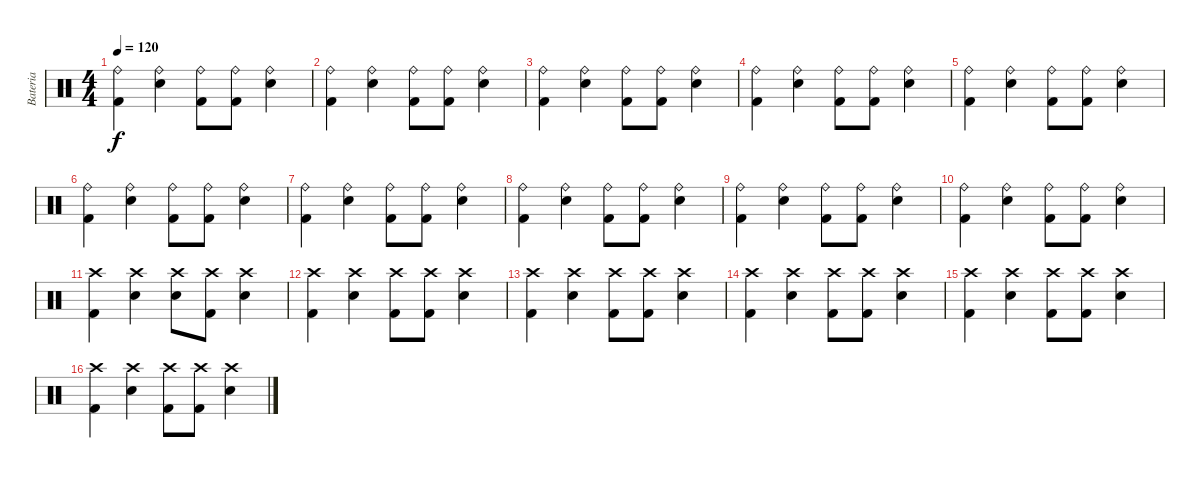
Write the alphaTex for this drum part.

\track ("Bateria" "Bateria") {instrument percussion}
\staff {score}
\articulation defaults
\ts (4 4)
\tempo 120
\clef neutral
\ks c
("Kick (hit) 2" "Ride (bell)").4{dy f} ("Electric Snare (hit)" "Ride (bell)").4 ("Kick (hit) 2" "Ride (bell)").8 ("Kick (hit) 2" "Ride (bell)").8 ("Electric Snare (hit)" "Ride (bell)").4 |
("Kick (hit) 2" "Ride (bell)").4 ("Electric Snare (hit)" "Ride (bell)").4 ("Kick (hit) 2" "Ride (bell)").8 ("Kick (hit) 2" "Ride (bell)").8 ("Electric Snare (hit)" "Ride (bell)").4 |
("Kick (hit) 2" "Ride (bell)").4 ("Electric Snare (hit)" "Ride (bell)").4 ("Kick (hit) 2" "Ride (bell)").8 ("Kick (hit) 2" "Ride (bell)").8 ("Electric Snare (hit)" "Ride (bell)").4 |
("Kick (hit) 2" "Ride (bell)").4 ("Electric Snare (hit)" "Ride (bell)").4 ("Kick (hit) 2" "Ride (bell)").8 ("Kick (hit) 2" "Ride (bell)").8 ("Electric Snare (hit)" "Ride (bell)").4 |
("Kick (hit) 2" "Ride (bell)").4 ("Electric Snare (hit)" "Ride (bell)").4 ("Kick (hit) 2" "Ride (bell)").8 ("Kick (hit) 2" "Ride (bell)").8 ("Electric Snare (hit)" "Ride (bell)").4 |
("Kick (hit) 2" "Ride (bell)").4 ("Electric Snare (hit)" "Ride (bell)").4 ("Kick (hit) 2" "Ride (bell)").8 ("Kick (hit) 2" "Ride (bell)").8 ("Electric Snare (hit)" "Ride (bell)").4 |
("Kick (hit) 2" "Ride (bell)").4 ("Electric Snare (hit)" "Ride (bell)").4 ("Kick (hit) 2" "Ride (bell)").8 ("Kick (hit) 2" "Ride (bell)").8 ("Electric Snare (hit)" "Ride (bell)").4 |
("Kick (hit) 2" "Ride (bell)").4 ("Electric Snare (hit)" "Ride (bell)").4 ("Kick (hit) 2" "Ride (bell)").8 ("Kick (hit) 2" "Ride (bell)").8 ("Electric Snare (hit)" "Ride (bell)").4 |
("Kick (hit) 2" "Ride (bell)").4 ("Electric Snare (hit)" "Ride (bell)").4 ("Kick (hit) 2" "Ride (bell)").8 ("Kick (hit) 2" "Ride (bell)").8 ("Electric Snare (hit)" "Ride (bell)").4 |
("Kick (hit) 2" "Ride (bell)").4 ("Electric Snare (hit)" "Ride (bell)").4 ("Kick (hit) 2" "Ride (bell)").8 ("Kick (hit) 2" "Ride (bell)").8 ("Electric Snare (hit)" "Ride (bell)").4 |
("Kick (hit) 2" "Crash high (hit)").4 ("Electric Snare (hit)" "Crash high (hit)").4 ("Electric Snare (hit)" "Crash high (hit)").8 ("Kick (hit) 2" "Crash high (hit)").8 ("Electric Snare (hit)" "Crash high (hit)").4 |
("Kick (hit) 2" "Crash high (hit)").4 ("Electric Snare (hit)" "Crash high (hit)").4 ("Kick (hit) 2" "Crash high (hit)").8 ("Kick (hit) 2" "Crash high (hit)").8 ("Electric Snare (hit)" "Crash high (hit)").4 |
("Kick (hit) 2" "Crash high (hit)").4 ("Electric Snare (hit)" "Crash high (hit)").4 ("Kick (hit) 2" "Crash high (hit)").8 ("Kick (hit) 2" "Crash high (hit)").8 ("Electric Snare (hit)" "Crash high (hit)").4 |
("Kick (hit) 2" "Crash high (hit)").4 ("Electric Snare (hit)" "Crash high (hit)").4 ("Kick (hit) 2" "Crash high (hit)").8 ("Kick (hit) 2" "Crash high (hit)").8 ("Electric Snare (hit)" "Crash high (hit)").4 |
("Kick (hit) 2" "Crash high (hit)").4 ("Electric Snare (hit)" "Crash high (hit)").4 ("Kick (hit) 2" "Crash high (hit)").8 ("Kick (hit) 2" "Crash high (hit)").8 ("Electric Snare (hit)" "Crash high (hit)").4 |
("Kick (hit) 2" "Crash high (hit)").4 ("Electric Snare (hit)" "Crash high (hit)").4 ("Kick (hit) 2" "Crash high (hit)").8 ("Kick (hit) 2" "Crash high (hit)").8 ("Electric Snare (hit)" "Crash high (hit)").4
